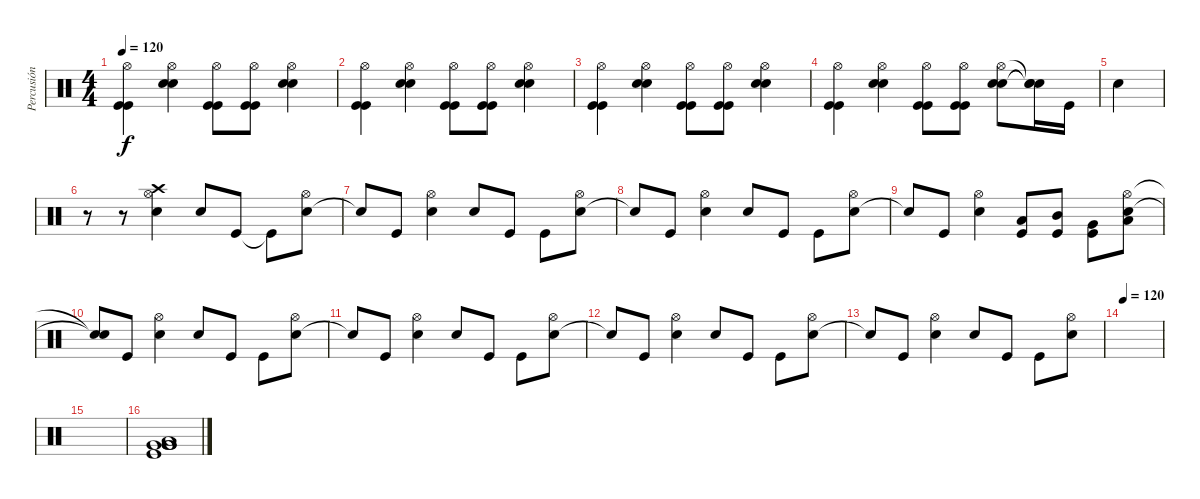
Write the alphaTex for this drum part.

\track ("Percusión" "Percusión") {instrument percussion}
\staff {score}
\articulation defaults
\ts (4 4)
\tempo 120
\clef neutral
\ks c
("Kick (hit)" "Kick (hit)" "Hi-Hat (open)").4{dy f} ("Electric Snare (hit)" "Snare (hit) 2" "Hi-Hat (open)").4 ("Kick (hit)" "Kick (hit)" "Hi-Hat (open)").8 ("Kick (hit)" "Kick (hit)" "Hi-Hat (open)").8 ("Electric Snare (hit)" "Snare (hit) 2" "Hi-Hat (open)").4 |
("Kick (hit)" "Kick (hit)" "Hi-Hat (open)").4 ("Electric Snare (hit)" "Snare (hit) 2" "Hi-Hat (open)").4 ("Kick (hit)" "Kick (hit)" "Hi-Hat (open)").8 ("Kick (hit)" "Kick (hit)" "Hi-Hat (open)").8 ("Electric Snare (hit)" "Snare (hit) 2" "Hi-Hat (open)").4 |
("Kick (hit)" "Kick (hit)" "Hi-Hat (open)").4 ("Electric Snare (hit)" "Snare (hit) 2" "Hi-Hat (open)").4 ("Kick (hit)" "Kick (hit)" "Hi-Hat (open)").8 ("Kick (hit)" "Kick (hit)" "Hi-Hat (open)").8 ("Electric Snare (hit)" "Snare (hit) 2" "Hi-Hat (open)").4 |
("Kick (hit)" "Kick (hit)" "Hi-Hat (open)").4 ("Electric Snare (hit)" "Snare (hit) 2" "Hi-Hat (open)").4 ("Kick (hit)" "Kick (hit)" "Hi-Hat (open)").8 ("Kick (hit)" "Kick (hit)" "Hi-Hat (open)").8 ("Electric Snare (hit)" "Snare (hit) 2" "Hi-Hat (open)").8 ("Snare (hit)"{t} "Snare (hit)"{t} "Snare (hit)"{t}).16 "Kick (hit)".16 |
"Electric Snare (hit)".4 |
r.8 r.8 ("Electric Snare (hit)" "Hi-Hat (open)" "Crash high (hit)").4 "Snare (hit) 2".8 "Kick (hit)".8 "Kick (hit)"{t}.8 ("Electric Snare (hit)" "Hi-Hat (open)").8 |
"Snare (hit)"{t}.8 "Kick (hit)".8 ("Electric Snare (hit)" "Hi-Hat (open)").4 "Snare (hit) 2".8 "Kick (hit)".8 "Kick (hit)".8 ("Electric Snare (hit)" "Hi-Hat (open)").8 |
"Snare (hit)"{t}.8 "Kick (hit)".8 ("Electric Snare (hit)" "Hi-Hat (open)").4 "Snare (hit) 2".8 "Kick (hit)".8 "Kick (hit)".8 ("Electric Snare (hit)" "Hi-Hat (open)").8 |
"Snare (hit)"{t}.8 "Kick (hit)".8 ("Electric Snare (hit)" "Hi-Hat (open)").4 ("Kick (hit)" "Low Tom (hit)").8 ("Kick (hit)" "Mid Tom (hit)").8 ("Kick (hit)" "Very Low Tom (hit)").8 ("Electric Snare (hit)" "Hi-Hat (open)" "Low Floor Tom (hit)").8 |
("Snare (hit)"{t} "Snare (hit)"{t}).8 "Kick (hit)".8 ("Electric Snare (hit)" "Hi-Hat (open)").4 "Snare (hit) 2".8 "Kick (hit)".8 "Kick (hit)".8 ("Electric Snare (hit)" "Hi-Hat (open)").8 |
"Snare (hit)"{t}.8 "Kick (hit)".8 ("Electric Snare (hit)" "Hi-Hat (open)").4 "Snare (hit) 2".8 "Kick (hit)".8 "Kick (hit)".8 ("Electric Snare (hit)" "Hi-Hat (open)").8 |
"Snare (hit)"{t}.8 "Kick (hit)".8 ("Electric Snare (hit)" "Hi-Hat (open)").4 "Snare (hit) 2".8 "Kick (hit)".8 "Kick (hit)".8 ("Electric Snare (hit)" "Hi-Hat (open)").8 |
"Snare (hit)"{t}.8 "Kick (hit)".8 ("Electric Snare (hit)" "Hi-Hat (open)").4 "Snare (hit) 2".8 "Kick (hit)".8 "Kick (hit)".8 ("Electric Snare (hit)" "Hi-Hat (open)").8 |
\tempo 120
|
|
("Very Low Tom (hit)" "Very Low Tom (hit)" "Kick (hit)" "Very Low Tom (hit)" "Very Low Tom (hit)" "Low Tom (hit)").1
